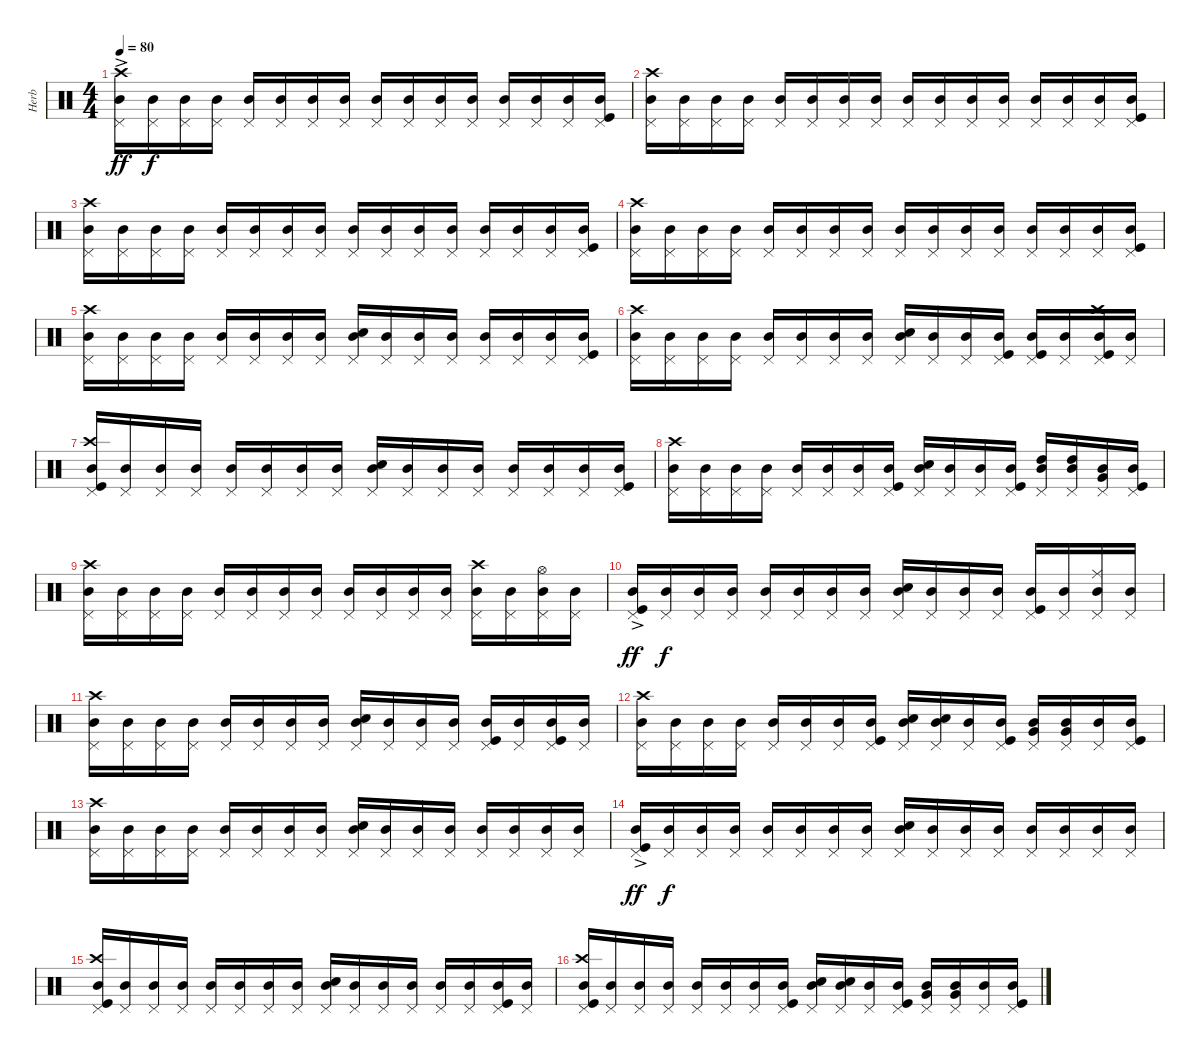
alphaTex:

\track ("Herb" "Herb") {instrument percussion}
\staff {score}
\articulation defaults
\ts (4 4)
\tempo 80
\clef neutral
\ks c
("Pedal Hi-Hat (hit)" "Mid Tom (hit)" "Crash high (hit)"{ac}).16{dy ff} ("Pedal Hi-Hat (hit)" "Mid Tom (hit)").16{dy f} ("Pedal Hi-Hat (hit)" "Mid Tom (hit)").16 ("Pedal Hi-Hat (hit)" "Mid Tom (hit)").16 ("Pedal Hi-Hat (hit)" "Mid Tom (hit)").16 ("Pedal Hi-Hat (hit)" "Mid Tom (hit)").16 ("Pedal Hi-Hat (hit)" "Mid Tom (hit)").16 ("Pedal Hi-Hat (hit)" "Mid Tom (hit)").16 ("Pedal Hi-Hat (hit)" "Mid Tom (hit)").16 ("Pedal Hi-Hat (hit)" "Mid Tom (hit)").16 ("Pedal Hi-Hat (hit)" "Mid Tom (hit)").16 ("Pedal Hi-Hat (hit)" "Mid Tom (hit)").16 ("Pedal Hi-Hat (hit)" "Mid Tom (hit)").16 ("Pedal Hi-Hat (hit)" "Mid Tom (hit)").16 ("Pedal Hi-Hat (hit)" "Mid Tom (hit)").16 ("Pedal Hi-Hat (hit)" "Mid Tom (hit)" "Kick (hit)").16 |
("Pedal Hi-Hat (hit)" "Mid Tom (hit)" "Crash high (hit)").16 ("Pedal Hi-Hat (hit)" "Mid Tom (hit)").16 ("Pedal Hi-Hat (hit)" "Mid Tom (hit)").16 ("Pedal Hi-Hat (hit)" "Mid Tom (hit)").16 ("Pedal Hi-Hat (hit)" "Mid Tom (hit)").16 ("Pedal Hi-Hat (hit)" "Mid Tom (hit)").16 ("Pedal Hi-Hat (hit)" "Mid Tom (hit)").16 ("Pedal Hi-Hat (hit)" "Mid Tom (hit)").16 ("Pedal Hi-Hat (hit)" "Mid Tom (hit)").16 ("Pedal Hi-Hat (hit)" "Mid Tom (hit)").16 ("Pedal Hi-Hat (hit)" "Mid Tom (hit)").16 ("Pedal Hi-Hat (hit)" "Mid Tom (hit)").16 ("Pedal Hi-Hat (hit)" "Mid Tom (hit)").16 ("Pedal Hi-Hat (hit)" "Mid Tom (hit)").16 ("Pedal Hi-Hat (hit)" "Mid Tom (hit)").16 ("Pedal Hi-Hat (hit)" "Mid Tom (hit)" "Kick (hit)").16 |
("Pedal Hi-Hat (hit)" "Mid Tom (hit)" "Crash high (hit)").16 ("Pedal Hi-Hat (hit)" "Mid Tom (hit)").16 ("Pedal Hi-Hat (hit)" "Mid Tom (hit)").16 ("Pedal Hi-Hat (hit)" "Mid Tom (hit)").16 ("Pedal Hi-Hat (hit)" "Mid Tom (hit)").16 ("Pedal Hi-Hat (hit)" "Mid Tom (hit)").16 ("Pedal Hi-Hat (hit)" "Mid Tom (hit)").16 ("Pedal Hi-Hat (hit)" "Mid Tom (hit)").16 ("Pedal Hi-Hat (hit)" "Mid Tom (hit)").16 ("Pedal Hi-Hat (hit)" "Mid Tom (hit)").16 ("Pedal Hi-Hat (hit)" "Mid Tom (hit)").16 ("Pedal Hi-Hat (hit)" "Mid Tom (hit)").16 ("Pedal Hi-Hat (hit)" "Mid Tom (hit)").16 ("Pedal Hi-Hat (hit)" "Mid Tom (hit)").16 ("Pedal Hi-Hat (hit)" "Mid Tom (hit)").16 ("Pedal Hi-Hat (hit)" "Mid Tom (hit)" "Kick (hit)").16 |
("Pedal Hi-Hat (hit)" "Mid Tom (hit)" "Crash high (hit)").16 ("Pedal Hi-Hat (hit)" "Mid Tom (hit)").16 ("Pedal Hi-Hat (hit)" "Mid Tom (hit)").16 ("Pedal Hi-Hat (hit)" "Mid Tom (hit)").16 ("Pedal Hi-Hat (hit)" "Mid Tom (hit)").16 ("Pedal Hi-Hat (hit)" "Mid Tom (hit)").16 ("Pedal Hi-Hat (hit)" "Mid Tom (hit)").16 ("Pedal Hi-Hat (hit)" "Mid Tom (hit)").16 ("Pedal Hi-Hat (hit)" "Mid Tom (hit)").16 ("Pedal Hi-Hat (hit)" "Mid Tom (hit)").16 ("Pedal Hi-Hat (hit)" "Mid Tom (hit)").16 ("Pedal Hi-Hat (hit)" "Mid Tom (hit)").16 ("Pedal Hi-Hat (hit)" "Mid Tom (hit)").16 ("Pedal Hi-Hat (hit)" "Mid Tom (hit)").16 ("Pedal Hi-Hat (hit)" "Mid Tom (hit)").16 ("Pedal Hi-Hat (hit)" "Mid Tom (hit)" "Kick (hit)").16 |
("Pedal Hi-Hat (hit)" "Mid Tom (hit)" "Crash high (hit)").16 ("Pedal Hi-Hat (hit)" "Mid Tom (hit)").16 ("Pedal Hi-Hat (hit)" "Mid Tom (hit)").16 ("Pedal Hi-Hat (hit)" "Mid Tom (hit)").16 ("Pedal Hi-Hat (hit)" "Mid Tom (hit)").16 ("Pedal Hi-Hat (hit)" "Mid Tom (hit)").16 ("Pedal Hi-Hat (hit)" "Mid Tom (hit)").16 ("Pedal Hi-Hat (hit)" "Mid Tom (hit)").16 ("Pedal Hi-Hat (hit)" "Mid Tom (hit)" "Snare (hit) 2").16 ("Pedal Hi-Hat (hit)" "Mid Tom (hit)").16 ("Pedal Hi-Hat (hit)" "Mid Tom (hit)").16 ("Pedal Hi-Hat (hit)" "Mid Tom (hit)").16 ("Pedal Hi-Hat (hit)" "Mid Tom (hit)").16 ("Pedal Hi-Hat (hit)" "Mid Tom (hit)").16 ("Pedal Hi-Hat (hit)" "Mid Tom (hit)").16 ("Pedal Hi-Hat (hit)" "Mid Tom (hit)" "Kick (hit)").16 |
("Pedal Hi-Hat (hit)" "Mid Tom (hit)" "Crash high (hit)").16 ("Pedal Hi-Hat (hit)" "Mid Tom (hit)").16 ("Pedal Hi-Hat (hit)" "Mid Tom (hit)").16 ("Pedal Hi-Hat (hit)" "Mid Tom (hit)").16 ("Pedal Hi-Hat (hit)" "Mid Tom (hit)").16 ("Pedal Hi-Hat (hit)" "Mid Tom (hit)").16 ("Pedal Hi-Hat (hit)" "Mid Tom (hit)").16 ("Pedal Hi-Hat (hit)" "Mid Tom (hit)").16 ("Pedal Hi-Hat (hit)" "Mid Tom (hit)" "Snare (hit) 2").16 ("Pedal Hi-Hat (hit)" "Mid Tom (hit)").16 ("Pedal Hi-Hat (hit)" "Mid Tom (hit)").16 ("Pedal Hi-Hat (hit)" "Mid Tom (hit)" "Kick (hit)").16 ("Pedal Hi-Hat (hit)" "Mid Tom (hit)" "Kick (hit)").16 ("Pedal Hi-Hat (hit)" "Mid Tom (hit)").16 ("Pedal Hi-Hat (hit)" "Mid Tom (hit)" "Crash high (hit)" "Kick (hit)").16 ("Pedal Hi-Hat (hit)" "Mid Tom (hit)").16 |
("Pedal Hi-Hat (hit)" "Mid Tom (hit)" "Crash high (hit)" "Kick (hit)").16 ("Pedal Hi-Hat (hit)" "Mid Tom (hit)").16 ("Pedal Hi-Hat (hit)" "Mid Tom (hit)").16 ("Pedal Hi-Hat (hit)" "Mid Tom (hit)").16 ("Pedal Hi-Hat (hit)" "Mid Tom (hit)").16 ("Pedal Hi-Hat (hit)" "Mid Tom (hit)").16 ("Pedal Hi-Hat (hit)" "Mid Tom (hit)").16 ("Pedal Hi-Hat (hit)" "Mid Tom (hit)").16 ("Pedal Hi-Hat (hit)" "Mid Tom (hit)" "Snare (hit) 2").16 ("Pedal Hi-Hat (hit)" "Mid Tom (hit)").16 ("Pedal Hi-Hat (hit)" "Mid Tom (hit)").16 ("Pedal Hi-Hat (hit)" "Mid Tom (hit)").16 ("Pedal Hi-Hat (hit)" "Mid Tom (hit)").16 ("Pedal Hi-Hat (hit)" "Mid Tom (hit)").16 ("Pedal Hi-Hat (hit)" "Mid Tom (hit)").16 ("Pedal Hi-Hat (hit)" "Mid Tom (hit)" "Kick (hit)").16 |
("Pedal Hi-Hat (hit)" "Mid Tom (hit)" "Crash high (hit)").16 ("Pedal Hi-Hat (hit)" "Mid Tom (hit)").16 ("Pedal Hi-Hat (hit)" "Mid Tom (hit)").16 ("Pedal Hi-Hat (hit)" "Mid Tom (hit)").16 ("Pedal Hi-Hat (hit)" "Mid Tom (hit)").16 ("Pedal Hi-Hat (hit)" "Mid Tom (hit)").16 ("Pedal Hi-Hat (hit)" "Mid Tom (hit)").16 ("Pedal Hi-Hat (hit)" "Mid Tom (hit)" "Kick (hit)").16 ("Pedal Hi-Hat (hit)" "Mid Tom (hit)" "Snare (hit) 2").16 ("Pedal Hi-Hat (hit)" "Mid Tom (hit)").16 ("Pedal Hi-Hat (hit)" "Mid Tom (hit)").16 ("Pedal Hi-Hat (hit)" "Mid Tom (hit)" "Kick (hit)").16 ("Pedal Hi-Hat (hit)" "Mid Tom (hit)" "High Tom (hit)").16 ("Pedal Hi-Hat (hit)" "Mid Tom (hit)" "High Tom (hit)").16 ("Pedal Hi-Hat (hit)" "Mid Tom (hit)" "Very Low Tom (hit)").16 ("Pedal Hi-Hat (hit)" "Mid Tom (hit)" "Kick (hit)").16 |
("Pedal Hi-Hat (hit)" "Mid Tom (hit)" "Crash high (hit)").16 ("Pedal Hi-Hat (hit)" "Mid Tom (hit)").16 ("Pedal Hi-Hat (hit)" "Mid Tom (hit)").16 ("Pedal Hi-Hat (hit)" "Mid Tom (hit)").16 ("Pedal Hi-Hat (hit)" "Mid Tom (hit)").16 ("Pedal Hi-Hat (hit)" "Mid Tom (hit)").16 ("Pedal Hi-Hat (hit)" "Mid Tom (hit)").16 ("Pedal Hi-Hat (hit)" "Mid Tom (hit)").16 ("Pedal Hi-Hat (hit)" "Mid Tom (hit)").16 ("Pedal Hi-Hat (hit)" "Mid Tom (hit)").16 ("Pedal Hi-Hat (hit)" "Mid Tom (hit)").16 ("Pedal Hi-Hat (hit)" "Mid Tom (hit)").16 ("Pedal Hi-Hat (hit)" "Mid Tom (hit)" "Crash high (hit)").16 ("Pedal Hi-Hat (hit)" "Mid Tom (hit)").16 ("Pedal Hi-Hat (hit)" "Mid Tom (hit)" "Hi-Hat (open)").16 ("Pedal Hi-Hat (hit)" "Mid Tom (hit)").16 |
("Pedal Hi-Hat (hit)" "Mid Tom (hit)"{ac} "Kick (hit)").16{dy ff} ("Pedal Hi-Hat (hit)" "Mid Tom (hit)").16{dy f} ("Pedal Hi-Hat (hit)" "Mid Tom (hit)").16 ("Pedal Hi-Hat (hit)" "Mid Tom (hit)").16 ("Pedal Hi-Hat (hit)" "Mid Tom (hit)").16 ("Pedal Hi-Hat (hit)" "Mid Tom (hit)").16 ("Pedal Hi-Hat (hit)" "Mid Tom (hit)").16 ("Pedal Hi-Hat (hit)" "Mid Tom (hit)").16 ("Pedal Hi-Hat (hit)" "Mid Tom (hit)" "Snare (hit) 2").16 ("Pedal Hi-Hat (hit)" "Mid Tom (hit)").16 ("Pedal Hi-Hat (hit)" "Mid Tom (hit)").16 ("Pedal Hi-Hat (hit)" "Mid Tom (hit)").16 ("Pedal Hi-Hat (hit)" "Mid Tom (hit)" "Kick (hit)").16 ("Pedal Hi-Hat (hit)" "Mid Tom (hit)").16 ("Pedal Hi-Hat (hit)" "Mid Tom (hit)" "Ride (middle)").16 ("Pedal Hi-Hat (hit)" "Mid Tom (hit)").16 |
("Pedal Hi-Hat (hit)" "Mid Tom (hit)" "Crash high (hit)").16 ("Pedal Hi-Hat (hit)" "Mid Tom (hit)").16 ("Pedal Hi-Hat (hit)" "Mid Tom (hit)").16 ("Pedal Hi-Hat (hit)" "Mid Tom (hit)").16 ("Pedal Hi-Hat (hit)" "Mid Tom (hit)").16 ("Pedal Hi-Hat (hit)" "Mid Tom (hit)").16 ("Pedal Hi-Hat (hit)" "Mid Tom (hit)").16 ("Pedal Hi-Hat (hit)" "Mid Tom (hit)").16 ("Pedal Hi-Hat (hit)" "Mid Tom (hit)" "Snare (hit) 2").16 ("Pedal Hi-Hat (hit)" "Mid Tom (hit)").16 ("Pedal Hi-Hat (hit)" "Mid Tom (hit)").16 ("Pedal Hi-Hat (hit)" "Mid Tom (hit)").16 ("Pedal Hi-Hat (hit)" "Mid Tom (hit)" "Kick (hit)").16 ("Pedal Hi-Hat (hit)" "Mid Tom (hit)").16 ("Pedal Hi-Hat (hit)" "Mid Tom (hit)" "Kick (hit)").16 ("Pedal Hi-Hat (hit)" "Mid Tom (hit)").16 |
("Pedal Hi-Hat (hit)" "Mid Tom (hit)" "Crash high (hit)").16 ("Pedal Hi-Hat (hit)" "Mid Tom (hit)").16 ("Pedal Hi-Hat (hit)" "Mid Tom (hit)").16 ("Pedal Hi-Hat (hit)" "Mid Tom (hit)").16 ("Pedal Hi-Hat (hit)" "Mid Tom (hit)").16 ("Pedal Hi-Hat (hit)" "Mid Tom (hit)").16 ("Pedal Hi-Hat (hit)" "Mid Tom (hit)").16 ("Pedal Hi-Hat (hit)" "Mid Tom (hit)" "Kick (hit)").16 ("Pedal Hi-Hat (hit)" "Mid Tom (hit)" "Snare (hit) 2").16 ("Pedal Hi-Hat (hit)" "Mid Tom (hit)" "Snare (hit) 2").16 ("Pedal Hi-Hat (hit)" "Mid Tom (hit)").16 ("Pedal Hi-Hat (hit)" "Mid Tom (hit)" "Kick (hit)").16 ("Pedal Hi-Hat (hit)" "Mid Tom (hit)" "Very Low Tom (hit)").16 ("Pedal Hi-Hat (hit)" "Mid Tom (hit)" "Very Low Tom (hit)").16 ("Pedal Hi-Hat (hit)" "Mid Tom (hit)").16 ("Pedal Hi-Hat (hit)" "Mid Tom (hit)" "Kick (hit)").16 |
("Pedal Hi-Hat (hit)" "Mid Tom (hit)" "Crash high (hit)").16 ("Pedal Hi-Hat (hit)" "Mid Tom (hit)").16 ("Pedal Hi-Hat (hit)" "Mid Tom (hit)").16 ("Pedal Hi-Hat (hit)" "Mid Tom (hit)").16 ("Pedal Hi-Hat (hit)" "Mid Tom (hit)").16 ("Pedal Hi-Hat (hit)" "Mid Tom (hit)").16 ("Pedal Hi-Hat (hit)" "Mid Tom (hit)").16 ("Pedal Hi-Hat (hit)" "Mid Tom (hit)").16 ("Pedal Hi-Hat (hit)" "Mid Tom (hit)" "Snare (hit) 2").16 ("Pedal Hi-Hat (hit)" "Mid Tom (hit)").16 ("Pedal Hi-Hat (hit)" "Mid Tom (hit)").16 ("Pedal Hi-Hat (hit)" "Mid Tom (hit)").16 ("Pedal Hi-Hat (hit)" "Mid Tom (hit)").16 ("Pedal Hi-Hat (hit)" "Mid Tom (hit)").16 ("Pedal Hi-Hat (hit)" "Mid Tom (hit)").16 ("Pedal Hi-Hat (hit)" "Mid Tom (hit)").16 |
("Pedal Hi-Hat (hit)" "Mid Tom (hit)" "Kick (hit)"{ac}).16{dy ff} ("Pedal Hi-Hat (hit)" "Mid Tom (hit)").16{dy f} ("Pedal Hi-Hat (hit)" "Mid Tom (hit)").16 ("Pedal Hi-Hat (hit)" "Mid Tom (hit)").16 ("Pedal Hi-Hat (hit)" "Mid Tom (hit)").16 ("Pedal Hi-Hat (hit)" "Mid Tom (hit)").16 ("Pedal Hi-Hat (hit)" "Mid Tom (hit)").16 ("Pedal Hi-Hat (hit)" "Mid Tom (hit)").16 ("Pedal Hi-Hat (hit)" "Mid Tom (hit)" "Snare (hit) 2").16 ("Pedal Hi-Hat (hit)" "Mid Tom (hit)").16 ("Pedal Hi-Hat (hit)" "Mid Tom (hit)").16 ("Pedal Hi-Hat (hit)" "Mid Tom (hit)").16 ("Pedal Hi-Hat (hit)" "Mid Tom (hit)").16 ("Pedal Hi-Hat (hit)" "Mid Tom (hit)").16 ("Pedal Hi-Hat (hit)" "Mid Tom (hit)").16 ("Pedal Hi-Hat (hit)" "Mid Tom (hit)").16 |
("Pedal Hi-Hat (hit)" "Mid Tom (hit)" "Crash high (hit)" "Kick (hit)").16 ("Pedal Hi-Hat (hit)" "Mid Tom (hit)").16 ("Pedal Hi-Hat (hit)" "Mid Tom (hit)").16 ("Pedal Hi-Hat (hit)" "Mid Tom (hit)").16 ("Pedal Hi-Hat (hit)" "Mid Tom (hit)").16 ("Pedal Hi-Hat (hit)" "Mid Tom (hit)").16 ("Pedal Hi-Hat (hit)" "Mid Tom (hit)").16 ("Pedal Hi-Hat (hit)" "Mid Tom (hit)").16 ("Pedal Hi-Hat (hit)" "Mid Tom (hit)" "Snare (hit) 2").16 ("Pedal Hi-Hat (hit)" "Mid Tom (hit)").16 ("Pedal Hi-Hat (hit)" "Mid Tom (hit)").16 ("Pedal Hi-Hat (hit)" "Mid Tom (hit)").16 ("Pedal Hi-Hat (hit)" "Mid Tom (hit)").16 ("Pedal Hi-Hat (hit)" "Mid Tom (hit)").16 ("Pedal Hi-Hat (hit)" "Mid Tom (hit)" "Kick (hit)").16 ("Pedal Hi-Hat (hit)" "Mid Tom (hit)").16 |
("Pedal Hi-Hat (hit)" "Mid Tom (hit)" "Crash high (hit)" "Kick (hit)").16 ("Pedal Hi-Hat (hit)" "Mid Tom (hit)").16 ("Pedal Hi-Hat (hit)" "Mid Tom (hit)").16 ("Pedal Hi-Hat (hit)" "Mid Tom (hit)").16 ("Pedal Hi-Hat (hit)" "Mid Tom (hit)").16 ("Pedal Hi-Hat (hit)" "Mid Tom (hit)").16 ("Pedal Hi-Hat (hit)" "Mid Tom (hit)").16 ("Pedal Hi-Hat (hit)" "Mid Tom (hit)" "Kick (hit)").16 ("Pedal Hi-Hat (hit)" "Mid Tom (hit)" "Snare (hit) 2").16 ("Pedal Hi-Hat (hit)" "Mid Tom (hit)" "Snare (hit) 2").16 ("Pedal Hi-Hat (hit)" "Mid Tom (hit)").16 ("Pedal Hi-Hat (hit)" "Mid Tom (hit)" "Kick (hit)").16 ("Pedal Hi-Hat (hit)" "Mid Tom (hit)" "Very Low Tom (hit)").16 ("Pedal Hi-Hat (hit)" "Mid Tom (hit)" "Very Low Tom (hit)").16 ("Pedal Hi-Hat (hit)" "Mid Tom (hit)").16 ("Pedal Hi-Hat (hit)" "Mid Tom (hit)" "Kick (hit)").16
